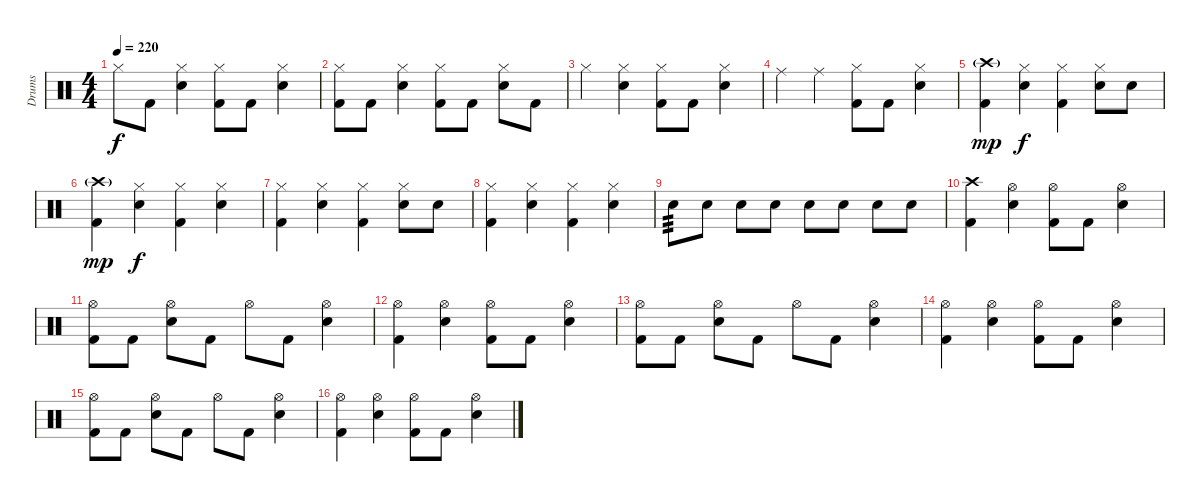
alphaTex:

\track ("Drums" "Drums") {instrument percussion}
\staff {score}
\articulation defaults
\ts (4 4)
\tempo 220
\clef neutral
\ks c "Hi-Hat (closed)".8{dy f} "Kick (hit) 2".8
("Hi-Hat (closed)" "Snare (hit) 2").4 ("Hi-Hat (closed)" "Kick (hit) 2").8 "Kick (hit) 2".8 ("Hi-Hat (closed)" "Snare (hit) 2").4 |
("Hi-Hat (closed)" "Kick (hit) 2").8 "Kick (hit) 2".8 ("Hi-Hat (closed)" "Snare (hit) 2").4 ("Hi-Hat (closed)" "Kick (hit) 2").8 "Kick (hit) 2".8 ("Hi-Hat (closed)" "Snare (hit) 2").8 "Kick (hit) 2".8 |
"Hi-Hat (closed)".4 ("Hi-Hat (closed)" "Snare (hit) 2").4 ("Hi-Hat (closed)" "Kick (hit) 2").8 "Kick (hit) 2".8 ("Hi-Hat (closed)" "Snare (hit) 2").4 |
"Ride (middle)".4 "Ride (middle)".4 ("Hi-Hat (closed)" "Kick (hit) 2").8 "Kick (hit) 2".8 ("Hi-Hat (closed)" "Snare (hit) 2").4 |
("Crash high (hit)"{g} "Kick (hit) 2").4{dy mp} ("Hi-Hat (closed)" "Snare (hit) 2").4{dy f} ("Hi-Hat (closed)" "Kick (hit) 2").4 ("Hi-Hat (closed)" "Snare (hit) 2").8 "Snare (hit) 2".8 |
("Crash high (hit)"{g} "Kick (hit) 2").4{dy mp} ("Hi-Hat (closed)" "Snare (hit) 2").4{dy f} ("Hi-Hat (closed)" "Kick (hit) 2").4 ("Hi-Hat (closed)" "Snare (hit) 2").4 |
("Hi-Hat (closed)" "Kick (hit) 2").4 ("Hi-Hat (closed)" "Snare (hit) 2").4 ("Hi-Hat (closed)" "Kick (hit) 2").4 ("Hi-Hat (closed)" "Snare (hit) 2").8 "Snare (hit) 2".8 |
("Hi-Hat (closed)" "Kick (hit) 2").4 ("Hi-Hat (closed)" "Snare (hit) 2").4 ("Hi-Hat (closed)" "Kick (hit) 2").4 ("Hi-Hat (closed)" "Snare (hit) 2").4 |
"Snare (hit) 2".8{tp 3} "Snare (hit) 2".8 "Snare (hit) 2".8 "Snare (hit) 2".8 "Snare (hit) 2".8 "Snare (hit) 2".8 "Snare (hit) 2".8 "Snare (hit) 2".8 |
("Crash high (hit)" "Kick (hit) 2").4 ("Hi-Hat (open)" "Snare (hit) 2").4 ("Hi-Hat (open)" "Kick (hit) 2").8 "Kick (hit) 2".8 ("Hi-Hat (open)" "Snare (hit) 2").4 |
("Hi-Hat (open)" "Kick (hit) 2").8 "Kick (hit) 2".8 ("Hi-Hat (open)" "Snare (hit) 2").8 "Kick (hit) 2".8 "Hi-Hat (open)".8 "Kick (hit) 2".8 ("Hi-Hat (open)" "Snare (hit) 2").4 |
("Hi-Hat (open)" "Kick (hit) 2").4 ("Hi-Hat (open)" "Snare (hit) 2").4 ("Hi-Hat (open)" "Kick (hit) 2").8 "Kick (hit) 2".8 ("Hi-Hat (open)" "Snare (hit) 2").4 |
("Hi-Hat (open)" "Kick (hit) 2").8 "Kick (hit) 2".8 ("Hi-Hat (open)" "Snare (hit) 2").8 "Kick (hit) 2".8 "Hi-Hat (open)".8 "Kick (hit) 2".8 ("Hi-Hat (open)" "Snare (hit) 2").4 |
("Hi-Hat (open)" "Kick (hit) 2").4 ("Hi-Hat (open)" "Snare (hit) 2").4 ("Hi-Hat (open)" "Kick (hit) 2").8 "Kick (hit) 2".8 ("Hi-Hat (open)" "Snare (hit) 2").4 |
("Hi-Hat (open)" "Kick (hit) 2").8 "Kick (hit) 2".8 ("Hi-Hat (open)" "Snare (hit) 2").8 "Kick (hit) 2".8 "Hi-Hat (open)".8 "Kick (hit) 2".8 ("Hi-Hat (open)" "Snare (hit) 2").4 |
("Hi-Hat (open)" "Kick (hit) 2").4 ("Hi-Hat (open)" "Snare (hit) 2").4 ("Hi-Hat (open)" "Kick (hit) 2").8 "Kick (hit) 2".8 ("Hi-Hat (open)" "Snare (hit) 2").4
